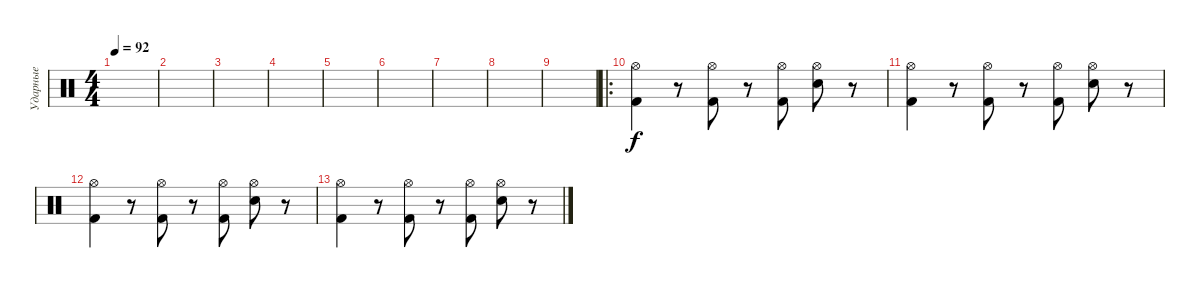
\track ("Ударные" "Ударные") {instrument percussion}
\staff {score}
\articulation defaults
\ts (4 4)
\tempo 92
\clef neutral
\ks c
|
|
|
|
|
|
|
|
|
\ro
("Hi-Hat (open)" "Kick (hit) 2").4 r.8 ("Hi-Hat (open)" "Kick (hit) 2").8 r.8 ("Hi-Hat (open)" "Kick (hit) 2").8 ("Hi-Hat (open)" "Snare (hit) 2").8 r.8 |
("Hi-Hat (open)" "Kick (hit) 2").4 r.8 ("Hi-Hat (open)" "Kick (hit) 2").8 r.8 ("Hi-Hat (open)" "Kick (hit) 2").8 ("Hi-Hat (open)" "Snare (hit) 2").8 r.8 |
("Hi-Hat (open)" "Kick (hit) 2").4 r.8 ("Hi-Hat (open)" "Kick (hit) 2").8 r.8 ("Hi-Hat (open)" "Kick (hit) 2").8 ("Hi-Hat (open)" "Snare (hit) 2").8 r.8 |
("Hi-Hat (open)" "Kick (hit) 2").4 r.8 ("Hi-Hat (open)" "Kick (hit) 2").8 r.8 ("Hi-Hat (open)" "Kick (hit) 2").8 ("Hi-Hat (open)" "Snare (hit) 2").8 r.8
